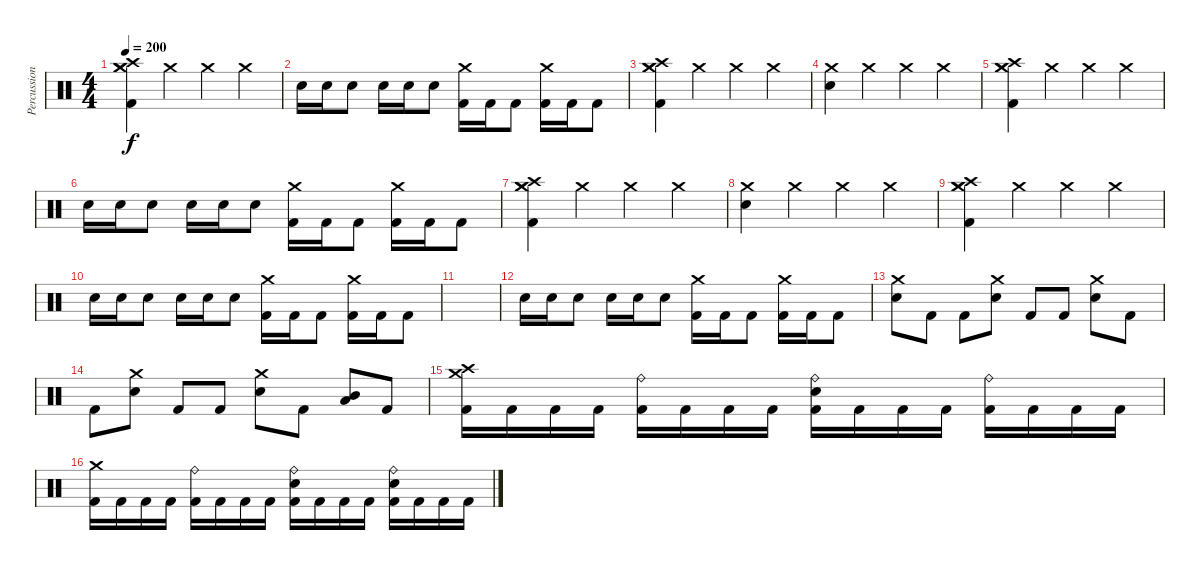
\track ("Percussion" "Percussion") {instrument percussion}
\staff {score}
\articulation defaults
\ts (4 4)
\tempo 200
\clef neutral
\ks c
("Crash high (hit)" "Crash medium (hit)" "Crash medium (hit)" "Kick (hit) 2").4{dy f} "Crash medium (hit)".4 "Crash medium (hit)".4 "Crash medium (hit)".4 |
"Snare (hit) 2".16 "Snare (hit) 2".16 "Snare (hit) 2".8 "Snare (hit) 2".16 "Snare (hit) 2".16 "Snare (hit) 2".8 ("Crash medium (hit)" "Kick (hit) 2").16 "Kick (hit) 2".16 "Kick (hit) 2".8 ("Crash medium (hit)" "Kick (hit) 2").16 "Kick (hit) 2".16 "Kick (hit) 2".8 |
("Crash high (hit)" "Crash medium (hit)" "Crash medium (hit)" "Kick (hit) 2").4 "Crash medium (hit)".4 "Crash medium (hit)".4 "Crash medium (hit)".4 |
("Crash medium (hit)" "Snare (hit) 2").4 "Crash medium (hit)".4 "Crash medium (hit)".4 "Crash medium (hit)".4 |
("Crash high (hit)" "Crash medium (hit)" "Crash medium (hit)" "Kick (hit) 2").4 "Crash medium (hit)".4 "Crash medium (hit)".4 "Crash medium (hit)".4 |
"Snare (hit) 2".16 "Snare (hit) 2".16 "Snare (hit) 2".8 "Snare (hit) 2".16 "Snare (hit) 2".16 "Snare (hit) 2".8 ("Crash medium (hit)" "Kick (hit) 2").16 "Kick (hit) 2".16 "Kick (hit) 2".8 ("Crash medium (hit)" "Kick (hit) 2").16 "Kick (hit) 2".16 "Kick (hit) 2".8 |
("Crash high (hit)" "Crash medium (hit)" "Crash medium (hit)" "Kick (hit) 2").4 "Crash medium (hit)".4 "Crash medium (hit)".4 "Crash medium (hit)".4 |
("Crash medium (hit)" "Snare (hit) 2").4 "Crash medium (hit)".4 "Crash medium (hit)".4 "Crash medium (hit)".4 |
("Crash high (hit)" "Crash medium (hit)" "Crash medium (hit)" "Kick (hit) 2").4 "Crash medium (hit)".4 "Crash medium (hit)".4 "Crash medium (hit)".4 |
"Snare (hit) 2".16 "Snare (hit) 2".16 "Snare (hit) 2".8 "Snare (hit) 2".16 "Snare (hit) 2".16 "Snare (hit) 2".8 ("Crash medium (hit)" "Kick (hit) 2").16 "Kick (hit) 2".16 "Kick (hit) 2".8 ("Crash medium (hit)" "Kick (hit) 2").16 "Kick (hit) 2".16 "Kick (hit) 2".8 |
|
"Snare (hit) 2".16 "Snare (hit) 2".16 "Snare (hit) 2".8 "Snare (hit) 2".16 "Snare (hit) 2".16 "Snare (hit) 2".8 ("Crash medium (hit)" "Kick (hit) 2").16 "Kick (hit) 2".16 "Kick (hit) 2".8 ("Crash medium (hit)" "Kick (hit) 2").16 "Kick (hit) 2".16 "Kick (hit) 2".8 |
("Crash medium (hit)" "Snare (hit) 2").8 "Kick (hit) 2".8 "Kick (hit) 2".8 ("Crash medium (hit)" "Snare (hit) 2").8 "Kick (hit) 2".8 "Kick (hit) 2".8 ("Crash medium (hit)" "Snare (hit) 2").8 "Kick (hit) 2".8 |
"Kick (hit) 2".8 ("Crash medium (hit)" "Snare (hit) 2").8 "Kick (hit) 2".8 "Kick (hit) 2".8 ("Crash medium (hit)" "Snare (hit) 2").8 "Kick (hit) 2".8 ("Low Tom (hit)" "Mid Tom (hit)").8 "Kick (hit) 2".8 |
("Crash high (hit)" "Crash medium (hit)" "Kick (hit) 2").16 "Kick (hit) 2".16 "Kick (hit) 2".16 "Kick (hit) 2".16 ("Ride (bell)" "Kick (hit) 2").16 "Kick (hit) 2".16 "Kick (hit) 2".16 "Kick (hit) 2".16 ("Ride (bell)" "Snare (hit) 2" "Kick (hit) 2").16 "Kick (hit) 2".16 "Kick (hit) 2".16 "Kick (hit) 2".16 ("Ride (bell)" "Kick (hit) 2").16 "Kick (hit) 2".16 "Kick (hit) 2".16 "Kick (hit) 2".16 |
("Crash medium (hit)" "Kick (hit) 2").16 "Kick (hit) 2".16 "Kick (hit) 2".16 "Kick (hit) 2".16 ("Ride (bell)" "Kick (hit) 2").16 "Kick (hit) 2".16 "Kick (hit) 2".16 "Kick (hit) 2".16 ("Ride (bell)" "Snare (hit) 2" "Kick (hit) 2").16 "Kick (hit) 2".16 "Kick (hit) 2".16 "Kick (hit) 2".16 ("Ride (bell)" "Snare (hit) 2" "Kick (hit) 2").16 "Kick (hit) 2".16 "Kick (hit) 2".16 "Kick (hit) 2".16
